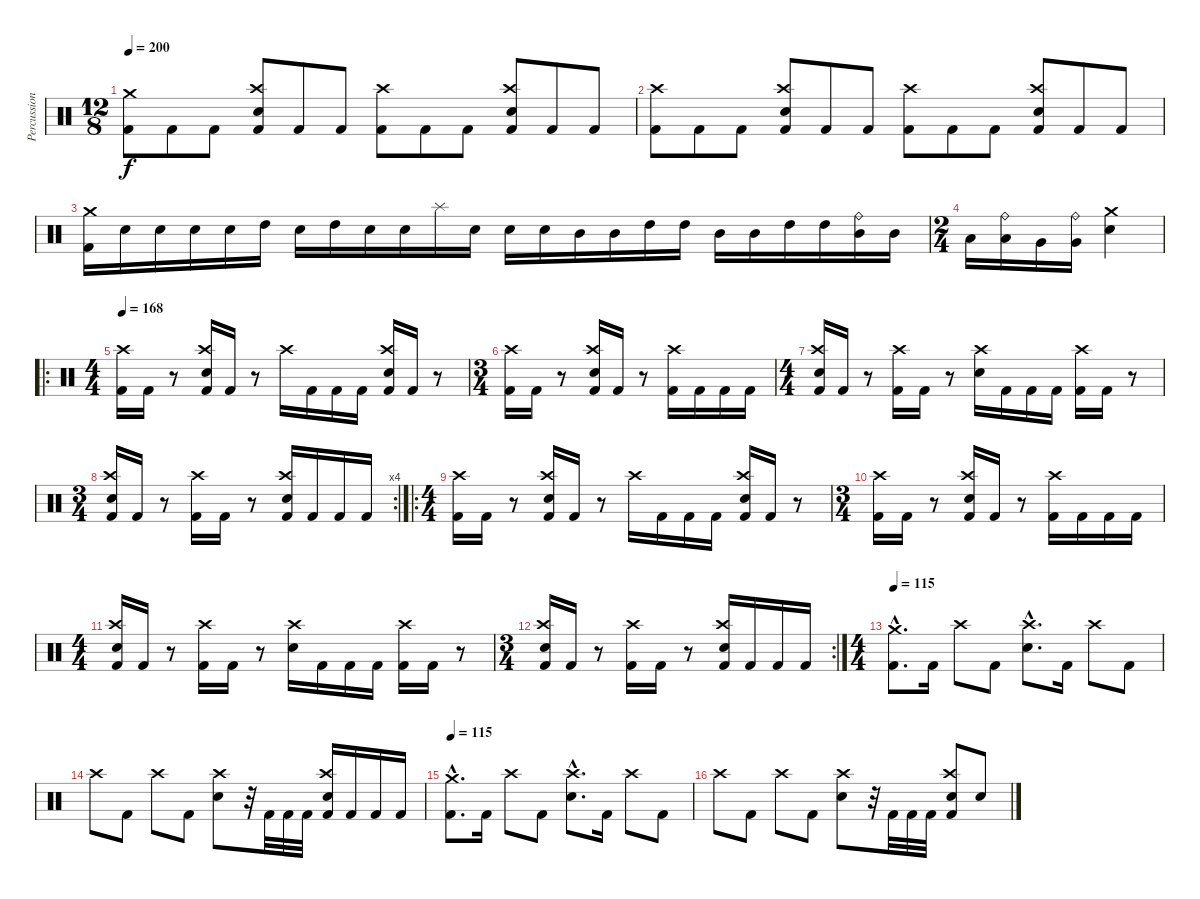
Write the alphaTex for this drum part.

\track ("Percussion" "Percussion") {instrument percussion}
\staff {score}
\articulation defaults
\ts (12 8)
\tempo 200
\clef neutral
\ks c
("Crash medium (hit)" "Kick (hit) 2").8{dy f} "Kick (hit) 2".8 "Kick (hit) 2".8 ("Crash high (hit)" "Snare (hit) 2" "Kick (hit) 2").8 "Kick (hit) 2".8 "Kick (hit) 2".8 ("Crash high (hit)" "Kick (hit) 2").8 "Kick (hit) 2".8 "Kick (hit) 2".8 ("Crash high (hit)" "Snare (hit) 2" "Kick (hit) 2").8 "Kick (hit) 2".8 "Kick (hit) 2".8 |
("Crash high (hit)" "Kick (hit) 2").8 "Kick (hit) 2".8 "Kick (hit) 2".8 ("Crash high (hit)" "Snare (hit) 2" "Kick (hit) 2").8 "Kick (hit) 2".8 "Kick (hit) 2".8 ("Crash high (hit)" "Kick (hit) 2").8 "Kick (hit) 2".8 "Kick (hit) 2".8 ("Crash high (hit)" "Snare (hit) 2" "Kick (hit) 2").8 "Kick (hit) 2".8 "Kick (hit) 2".8 |
("Crash medium (hit)" "Kick (hit) 2").16 "Snare (hit) 2".16 "Snare (hit) 2".16 "Snare (hit) 2".16 "Snare (hit) 2".16 "High Tom (hit)".16 "Snare (hit) 2".16 "High Tom (hit)".16 "Snare (hit) 2".16 "Snare (hit) 2".16 "Splash (hit)".16 "Snare (hit) 2".16 "Snare (hit) 2".16 "Snare (hit) 2".16 "Mid Tom (hit)".16 "Mid Tom (hit)".16 "High Tom (hit)".16 "High Tom (hit)".16 "Mid Tom (hit)".16 "Mid Tom (hit)".16 "High Tom (hit)".16 "High Tom (hit)".16 ("Ride (bell)" "Mid Tom (hit)").16 "Mid Tom (hit)".16 |
\ts (2 4)
"Low Tom (hit)".16 ("Ride (bell)" "Low Tom (hit)").16 "Very Low Tom (hit)".16 ("Ride (bell)" "Very Low Tom (hit)").16 ("Crash medium (hit)" "Snare (hit) 2").4 |
\ro
\ts (4 4)
\tempo 168
("Crash high (hit)" "Kick (hit) 2").16 "Kick (hit) 2".16 r.8 ("Crash high (hit)" "Snare (hit) 2" "Kick (hit) 2").16 "Kick (hit) 2".16 r.8 "Crash high (hit)".16 "Kick (hit) 2".16 "Kick (hit) 2".16 "Kick (hit) 2".16 ("Crash high (hit)" "Snare (hit) 2" "Kick (hit) 2").16 "Kick (hit) 2".16 r.8 |
\ts (3 4)
("Crash high (hit)" "Kick (hit) 2").16 "Kick (hit) 2".16 r.8 ("Crash high (hit)" "Snare (hit) 2" "Kick (hit) 2").16 "Kick (hit) 2".16 r.8 ("Crash high (hit)" "Kick (hit) 2").16 "Kick (hit) 2".16 "Kick (hit) 2".16 "Kick (hit) 2".16 |
\ts (4 4)
("Crash high (hit)" "Snare (hit) 2" "Kick (hit) 2").16 "Kick (hit) 2".16 r.8 ("Crash high (hit)" "Kick (hit) 2").16 "Kick (hit) 2".16 r.8 ("Crash high (hit)" "Snare (hit) 2").16 "Kick (hit) 2".16 "Kick (hit) 2".16 "Kick (hit) 2".16 ("Crash high (hit)" "Kick (hit) 2").16 "Kick (hit) 2".16 r.8 |
\rc 4
\ts (3 4)
("Crash high (hit)" "Snare (hit) 2" "Kick (hit) 2").16 "Kick (hit) 2".16 r.8 ("Crash high (hit)" "Kick (hit) 2").16 "Kick (hit) 2".16 r.8 ("Crash high (hit)" "Snare (hit) 2" "Kick (hit) 2").16 "Kick (hit) 2".16 "Kick (hit) 2".16 "Kick (hit) 2".16 |
\ro
\ts (4 4)
("Crash high (hit)" "Kick (hit) 2").16 "Kick (hit) 2".16 r.8 ("Crash high (hit)" "Snare (hit) 2" "Kick (hit) 2").16 "Kick (hit) 2".16 r.8 "Crash high (hit)".16 "Kick (hit) 2".16 "Kick (hit) 2".16 "Kick (hit) 2".16 ("Crash high (hit)" "Snare (hit) 2" "Kick (hit) 2").16 "Kick (hit) 2".16 r.8 |
\ts (3 4)
("Crash high (hit)" "Kick (hit) 2").16 "Kick (hit) 2".16 r.8 ("Crash high (hit)" "Snare (hit) 2" "Kick (hit) 2").16 "Kick (hit) 2".16 r.8 ("Crash high (hit)" "Kick (hit) 2").16 "Kick (hit) 2".16 "Kick (hit) 2".16 "Kick (hit) 2".16 |
\ts (4 4)
("Crash high (hit)" "Snare (hit) 2" "Kick (hit) 2").16 "Kick (hit) 2".16 r.8 ("Crash high (hit)" "Kick (hit) 2").16 "Kick (hit) 2".16 r.8 ("Crash high (hit)" "Snare (hit) 2").16 "Kick (hit) 2".16 "Kick (hit) 2".16 "Kick (hit) 2".16 ("Crash high (hit)" "Kick (hit) 2").16 "Kick (hit) 2".16 r.8 |
\rc 2
\ts (3 4)
("Crash high (hit)" "Snare (hit) 2" "Kick (hit) 2").16 "Kick (hit) 2".16 r.8 ("Crash high (hit)" "Kick (hit) 2").16 "Kick (hit) 2".16 r.8 ("Crash high (hit)" "Snare (hit) 2" "Kick (hit) 2").16 "Kick (hit) 2".16 "Kick (hit) 2".16 "Kick (hit) 2".16 |
\ts (4 4)
\tempo 115
("Crash medium (hit)"{hac} "Kick (hit) 2"{hac}).8{d} "Kick (hit) 2".16 "Crash high (hit)".8 "Kick (hit) 2".8 ("Crash high (hit)"{hac} "Snare (hit) 2"{hac}).8{d} "Kick (hit) 2".16 "Crash high (hit)".8 "Kick (hit) 2".8 |
"Crash high (hit)".8 "Kick (hit) 2".8 "Crash high (hit)".8 "Kick (hit) 2".8 ("Crash high (hit)" "Snare (hit) 2").8 r.32 "Kick (hit) 2".32 "Kick (hit) 2".32 "Kick (hit) 2".32 ("Crash high (hit)" "Snare (hit) 2" "Kick (hit) 2").16 "Kick (hit) 2".16 "Kick (hit) 2".16 "Kick (hit) 2".16 |
\tempo 115
("Crash medium (hit)"{hac} "Kick (hit) 2"{hac}).8{d} "Kick (hit) 2".16 "Crash high (hit)".8 "Kick (hit) 2".8 ("Crash high (hit)"{hac} "Snare (hit) 2"{hac}).8{d} "Kick (hit) 2".16 "Crash high (hit)".8 "Kick (hit) 2".8 |
"Crash high (hit)".8 "Kick (hit) 2".8 "Crash high (hit)".8 "Kick (hit) 2".8 ("Crash high (hit)" "Snare (hit) 2").8 r.32 "Kick (hit) 2".32 "Kick (hit) 2".32 "Kick (hit) 2".32 ("Crash high (hit)" "Snare (hit) 2" "Kick (hit) 2").8 "Snare (hit) 2".8
